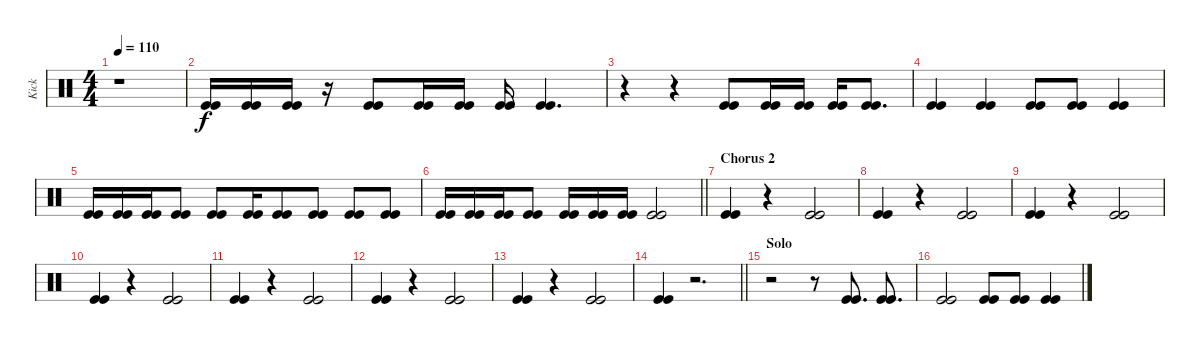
\track ("Kick" "Kick") {instrument percussion}
\staff {score}
\articulation defaults
\ts (4 4)
\tempo 110
\clef neutral
\ks c
r.1{dy f} |
("Kick (hit)" "Kick (hit)").16{beam merge} ("Kick (hit)" "Kick (hit)").16 ("Kick (hit)" "Kick (hit)").16 r.16 ("Kick (hit)" "Kick (hit)").8 ("Kick (hit)" "Kick (hit)").16{beam merge} ("Kick (hit)" "Kick (hit)").16 ("Kick (hit)" "Kick (hit)").16 ("Kick (hit)" "Kick (hit)").4{d} |
r.4 r.4 ("Kick (hit)" "Kick (hit)").8{beam merge} ("Kick (hit)" "Kick (hit)").16 ("Kick (hit)" "Kick (hit)").16 ("Kick (hit)" "Kick (hit)").16 ("Kick (hit)" "Kick (hit)").8{d} |
("Kick (hit)" "Kick (hit)").4{beam merge} ("Kick (hit)" "Kick (hit)").4{beam merge} ("Kick (hit)" "Kick (hit)").8 ("Kick (hit)" "Kick (hit)").8 ("Kick (hit)" "Kick (hit)").4 |
("Kick (hit)" "Kick (hit)").16 ("Kick (hit)" "Kick (hit)").16 ("Kick (hit)" "Kick (hit)").16 ("Kick (hit)" "Kick (hit)").8 ("Kick (hit)" "Kick (hit)").8{beam merge} ("Kick (hit)" "Kick (hit)").16{beam merge} ("Kick (hit)" "Kick (hit)").8{beam merge} ("Kick (hit)" "Kick (hit)").8 ("Kick (hit)" "Kick (hit)").8 ("Kick (hit)" "Kick (hit)").8 |
\barLineRight lightlight
("Kick (hit)" "Kick (hit)").16 ("Kick (hit)" "Kick (hit)").16 ("Kick (hit)" "Kick (hit)").16 ("Kick (hit)" "Kick (hit)").8 ("Kick (hit)" "Kick (hit)").16 ("Kick (hit)" "Kick (hit)").16 ("Kick (hit)" "Kick (hit)").16 ("Kick (hit)" "Kick (hit)").2 |
\section ("" "Chorus 2")
("Kick (hit)" "Kick (hit)").4 r.4 ("Kick (hit)" "Kick (hit)").2 |
("Kick (hit)" "Kick (hit)").4 r.4 ("Kick (hit)" "Kick (hit)").2 |
("Kick (hit)" "Kick (hit)").4 r.4 ("Kick (hit)" "Kick (hit)").2 |
("Kick (hit)" "Kick (hit)").4 r.4 ("Kick (hit)" "Kick (hit)").2 |
("Kick (hit)" "Kick (hit)").4 r.4 ("Kick (hit)" "Kick (hit)").2 |
("Kick (hit)" "Kick (hit)").4 r.4 ("Kick (hit)" "Kick (hit)").2 |
("Kick (hit)" "Kick (hit)").4 r.4 ("Kick (hit)" "Kick (hit)").2 |
\barLineRight lightlight
("Kick (hit)" "Kick (hit)").4 r.2{d} |
\section ("" "Solo")
r.2 r.8{beam merge} ("Kick (hit)" "Kick (hit)").8{d} ("Kick (hit)" "Kick (hit)").8{d} |
("Kick (hit)" "Kick (hit)").2 ("Kick (hit)" "Kick (hit)").8 ("Kick (hit)" "Kick (hit)").8 ("Kick (hit)" "Kick (hit)").4
